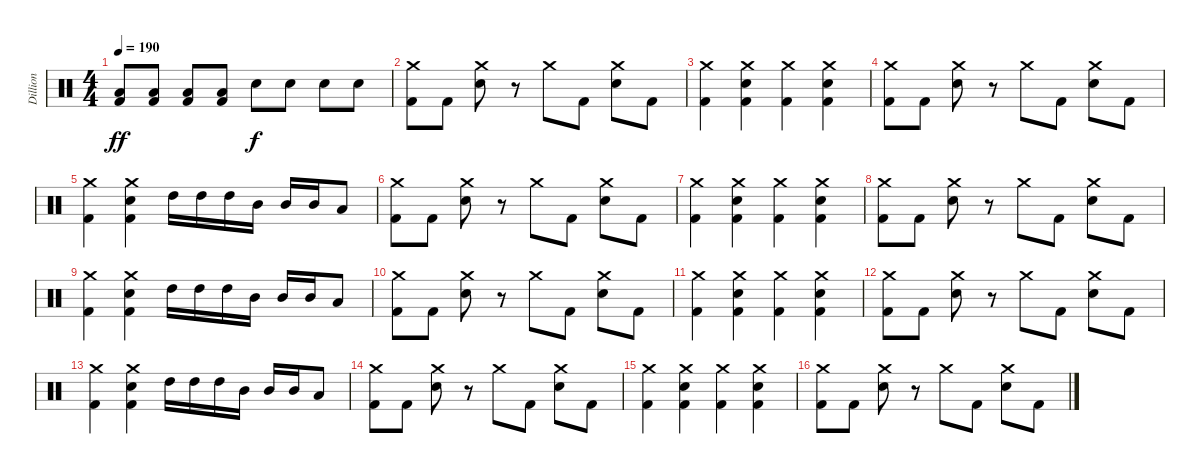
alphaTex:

\track ("Dillion" "Dillion") {instrument percussion}
\staff {score}
\articulation defaults
\ts (4 4)
\tempo 190
\clef neutral
\ks c
("Low Tom (hit)" "Kick (hit) 2").8{dy ff} ("Low Tom (hit)" "Kick (hit) 2").8 ("Low Tom (hit)" "Kick (hit) 2").8 ("Low Tom (hit)" "Kick (hit) 2").8 "Electric Snare (hit)".8{dy f} "Electric Snare (hit)".8 "Electric Snare (hit)".8 "Electric Snare (hit)".8 |
("Crash medium (hit)" "Kick (hit) 2").8 "Kick (hit) 2".8 ("Crash medium (hit)" "Electric Snare (hit)").8 r.8 "Crash medium (hit)".8 "Kick (hit) 2".8 ("Crash medium (hit)" "Electric Snare (hit)").8 "Kick (hit) 2".8 |
("Crash medium (hit)" "Kick (hit) 2").4 ("Crash medium (hit)" "Electric Snare (hit)" "Kick (hit) 2").4 ("Crash medium (hit)" "Kick (hit) 2").4 ("Crash medium (hit)" "Electric Snare (hit)" "Kick (hit) 2").4 |
("Crash medium (hit)" "Kick (hit) 2").8 "Kick (hit) 2".8 ("Crash medium (hit)" "Electric Snare (hit)").8 r.8 "Crash medium (hit)".8 "Kick (hit) 2".8 ("Crash medium (hit)" "Electric Snare (hit)").8 "Kick (hit) 2".8 |
("Crash medium (hit)" "Kick (hit) 2").4 ("Crash medium (hit)" "Electric Snare (hit)" "Kick (hit) 2").4 "High Tom (hit)".16 "High Tom (hit)".16 "High Tom (hit)".16 "Mid Tom (hit)".16 "Mid Tom (hit)".16 "Mid Tom (hit)".16 "Low Tom (hit)".8 |
("Crash medium (hit)" "Kick (hit) 2").8 "Kick (hit) 2".8 ("Crash medium (hit)" "Electric Snare (hit)").8 r.8 "Crash medium (hit)".8 "Kick (hit) 2".8 ("Crash medium (hit)" "Electric Snare (hit)").8 "Kick (hit) 2".8 |
("Crash medium (hit)" "Kick (hit) 2").4 ("Crash medium (hit)" "Electric Snare (hit)" "Kick (hit) 2").4 ("Crash medium (hit)" "Kick (hit) 2").4 ("Crash medium (hit)" "Electric Snare (hit)" "Kick (hit) 2").4 |
("Crash medium (hit)" "Kick (hit) 2").8 "Kick (hit) 2".8 ("Crash medium (hit)" "Electric Snare (hit)").8 r.8 "Crash medium (hit)".8 "Kick (hit) 2".8 ("Crash medium (hit)" "Electric Snare (hit)").8 "Kick (hit) 2".8 |
("Crash medium (hit)" "Kick (hit) 2").4 ("Crash medium (hit)" "Electric Snare (hit)" "Kick (hit) 2").4 "High Tom (hit)".16 "High Tom (hit)".16 "High Tom (hit)".16 "Mid Tom (hit)".16 "Mid Tom (hit)".16 "Mid Tom (hit)".16 "Low Tom (hit)".8 |
("Crash medium (hit)" "Kick (hit) 2").8 "Kick (hit) 2".8 ("Crash medium (hit)" "Electric Snare (hit)").8 r.8 "Crash medium (hit)".8 "Kick (hit) 2".8 ("Crash medium (hit)" "Electric Snare (hit)").8 "Kick (hit) 2".8 |
("Crash medium (hit)" "Kick (hit) 2").4 ("Crash medium (hit)" "Electric Snare (hit)" "Kick (hit) 2").4 ("Crash medium (hit)" "Kick (hit) 2").4 ("Crash medium (hit)" "Electric Snare (hit)" "Kick (hit) 2").4 |
("Crash medium (hit)" "Kick (hit) 2").8 "Kick (hit) 2".8 ("Crash medium (hit)" "Electric Snare (hit)").8 r.8 "Crash medium (hit)".8 "Kick (hit) 2".8 ("Crash medium (hit)" "Electric Snare (hit)").8 "Kick (hit) 2".8 |
("Crash medium (hit)" "Kick (hit) 2").4 ("Crash medium (hit)" "Electric Snare (hit)" "Kick (hit) 2").4 "High Tom (hit)".16 "High Tom (hit)".16 "High Tom (hit)".16 "Mid Tom (hit)".16 "Mid Tom (hit)".16 "Mid Tom (hit)".16 "Low Tom (hit)".8 |
("Crash medium (hit)" "Kick (hit) 2").8 "Kick (hit) 2".8 ("Crash medium (hit)" "Electric Snare (hit)").8 r.8 "Crash medium (hit)".8 "Kick (hit) 2".8 ("Crash medium (hit)" "Electric Snare (hit)").8 "Kick (hit) 2".8 |
("Crash medium (hit)" "Kick (hit) 2").4 ("Crash medium (hit)" "Electric Snare (hit)" "Kick (hit) 2").4 ("Crash medium (hit)" "Kick (hit) 2").4 ("Crash medium (hit)" "Electric Snare (hit)" "Kick (hit) 2").4 |
("Crash medium (hit)" "Kick (hit) 2").8 "Kick (hit) 2".8 ("Crash medium (hit)" "Electric Snare (hit)").8 r.8 "Crash medium (hit)".8 "Kick (hit) 2".8 ("Crash medium (hit)" "Electric Snare (hit)").8 "Kick (hit) 2".8
